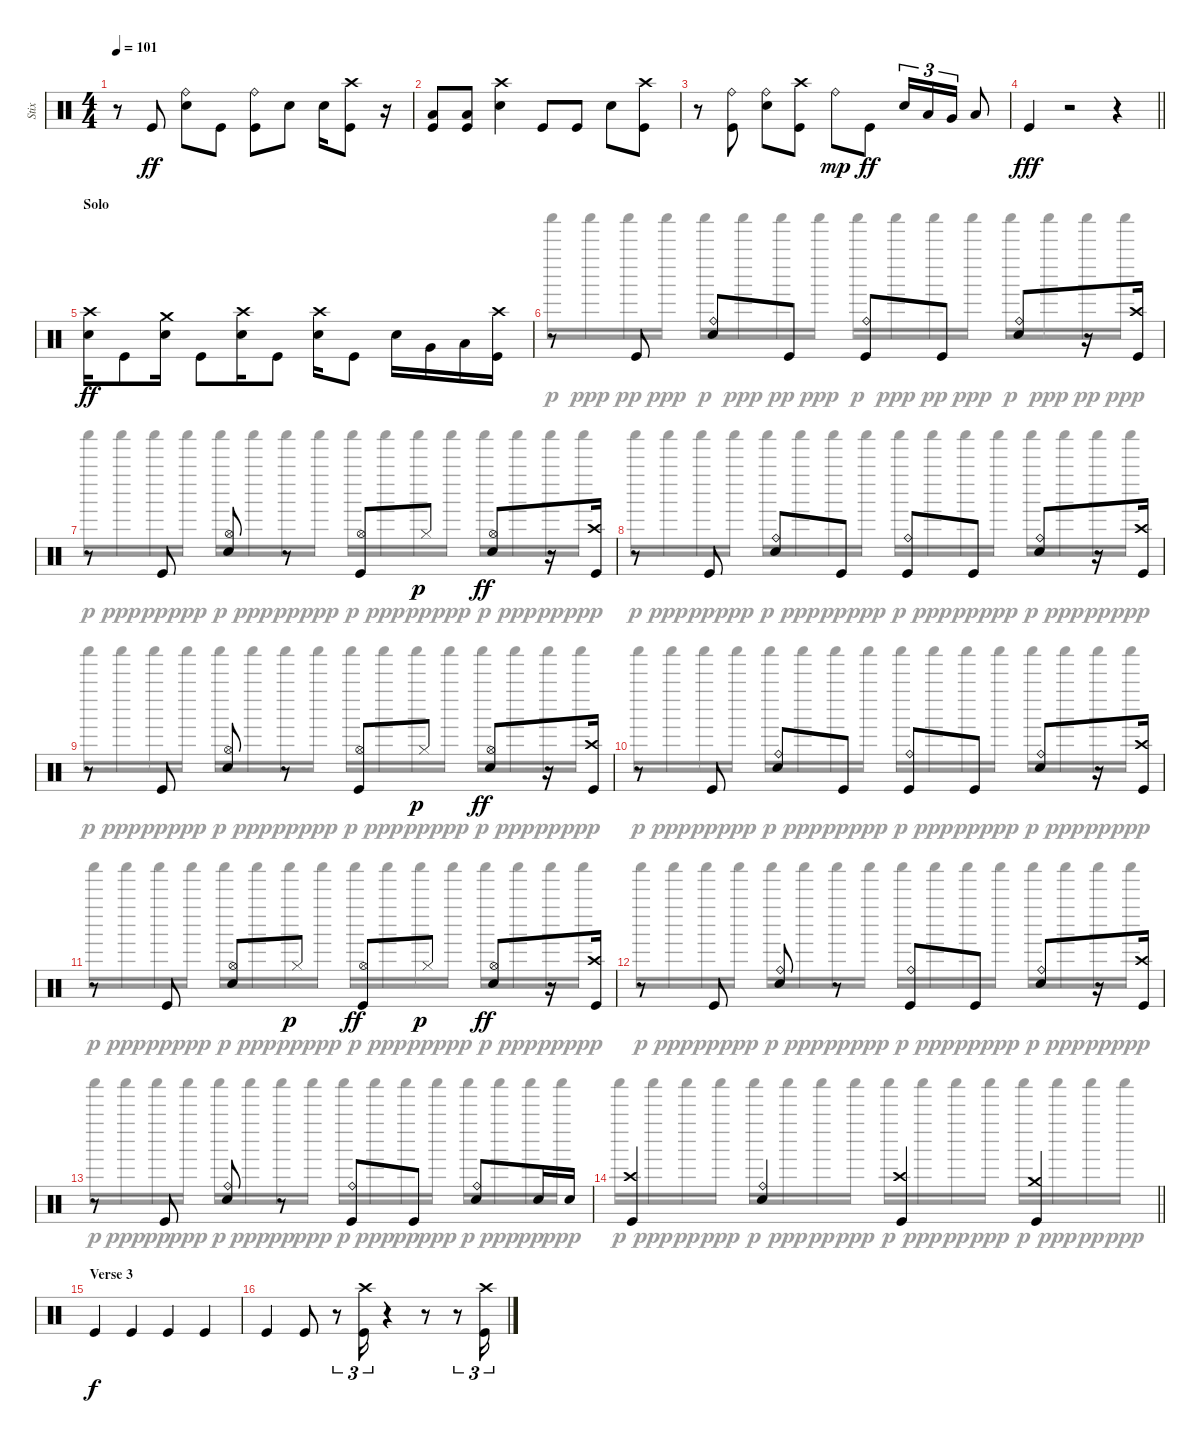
\track ("Stix" "Stix") {instrument percussion}
\staff {score}
\articulation defaults
\voice
\ts (4 4)
\tempo 101
\clef neutral
\ks c
r.8{dy ff} "Kick (hit)".8 ("Ride (bell)" "Electric Snare (hit)").8 "Kick (hit)".8 ("Ride (bell)" "Kick (hit)").8 "Electric Snare (hit)".8 "Electric Snare (hit)".16 ("Crash high (hit)" "Kick (hit)").8 r.16 |
("Low Floor Tom (hit)" "Kick (hit)").8 ("Low Floor Tom (hit)" "Kick (hit)").8 ("Crash high (hit)" "Electric Snare (hit)").4 "Kick (hit)".8 "Kick (hit)".8 "Electric Snare (hit)".8 ("Crash high (hit)" "Kick (hit)").8 |
r.8 ("Ride (bell)" "Kick (hit)").8 ("Ride (bell)" "Electric Snare (hit)").8 ("Crash high (hit)" "Kick (hit)").8 "Ride (bell)".8{dy mp} "Kick (hit)".8{dy ff} "Electric Snare (hit)".16{tu (3 2)} "Low Tom (hit)".16{tu (3 2)} "Very Low Tom (hit)".16{tu (3 2)} "Low Floor Tom (hit)".8 |
\barLineRight lightlight "Kick (hit)".4{dy fff}
r.2 r.4 |
\section ("" "Solo")
("Crash high (hit)" "Electric Snare (hit)").16{dy ff} "Kick (hit)".8 ("Crash medium (hit)" "Electric Snare (hit)").16 "Kick (hit)".8 ("Crash high (hit)" "Electric Snare (hit)").16 "Kick (hit)".8 ("Crash high (hit)" "Electric Snare (hit)").16 "Kick (hit)".8 "Electric Snare (hit)".16 "Very Low Tom (hit)".16 "Low Floor Tom (hit)".16 ("Crash high (hit)" "Kick (hit)").16 |
r.8 "Kick (hit)".8 ("Ride (bell)" "Electric Snare (hit)").8 "Kick (hit)".8 ("Ride (bell)" "Kick (hit)").8 "Kick (hit)".8 ("Ride (bell)" "Electric Snare (hit)").8 r.16 ("Crash high (hit)" "Kick (hit)").16 |
r.8 "Kick (hit)".8 ("Hi-Hat (open)" "Electric Snare (hit)").8 r.8 ("Hi-Hat (open)" "Kick (hit)").8 "Hi-Hat (closed)".8{dy p} ("Hi-Hat (open)" "Electric Snare (hit)").8{dy ff} r.16 ("Crash high (hit)" "Kick (hit)").16 |
r.8 "Kick (hit)".8 ("Ride (bell)" "Electric Snare (hit)").8 "Kick (hit)".8 ("Ride (bell)" "Kick (hit)").8 "Kick (hit)".8 ("Ride (bell)" "Electric Snare (hit)").8 r.16 ("Crash high (hit)" "Kick (hit)").16 |
r.8 "Kick (hit)".8 ("Hi-Hat (open)" "Electric Snare (hit)").8 r.8 ("Hi-Hat (open)" "Kick (hit)").8 "Hi-Hat (closed)".8{dy p} ("Hi-Hat (open)" "Electric Snare (hit)").8{dy ff} r.16 ("Crash high (hit)" "Kick (hit)").16 |
r.8 "Kick (hit)".8 ("Ride (bell)" "Electric Snare (hit)").8 "Kick (hit)".8 ("Ride (bell)" "Kick (hit)").8 "Kick (hit)".8 ("Ride (bell)" "Electric Snare (hit)").8 r.16 ("Crash high (hit)" "Kick (hit)").16 |
r.8 "Kick (hit)".8 ("Hi-Hat (open)" "Electric Snare (hit)").8 "Hi-Hat (closed)".8{dy p} ("Hi-Hat (open)" "Kick (hit)").8{dy ff} "Hi-Hat (closed)".8{dy p} ("Hi-Hat (open)" "Electric Snare (hit)").8{dy ff} r.16 ("Crash high (hit)" "Kick (hit)").16 |
r.8 "Kick (hit)".8 ("Ride (bell)" "Electric Snare (hit)").8 r.8 ("Ride (bell)" "Kick (hit)").8 "Kick (hit)".8 ("Ride (bell)" "Electric Snare (hit)").8 r.16 ("Crash high (hit)" "Kick (hit)").16 |
r.8 "Kick (hit)".8 ("Ride (bell)" "Electric Snare (hit)").8 r.8 ("Ride (bell)" "Kick (hit)").8 "Kick (hit)".8 ("Ride (bell)" "Electric Snare (hit)").8 "Electric Snare (hit)".16 "Electric Snare (hit)".16 |
\barLineRight lightlight
("Crash high (hit)" "Kick (hit)").4 ("Ride (bell)" "Electric Snare (hit)").4 ("Crash high (hit)" "Kick (hit)").4 ("Crash medium (hit)" "Kick (hit)").4 |
\section ("" "Verse 3")
"Kick (hit)".4{dy f} "Kick (hit)".4 "Kick (hit)".4 "Kick (hit)".4 |
"Kick (hit)".4 "Kick (hit)".8 r.8{tu (3 2)} ("Crash high (hit)" "Kick (hit)").16{tu (3 2)} r.4 r.8 r.8{tu (3 2)} ("Crash high (hit)" "Kick (hit)").16{tu (3 2)}
\voice
\clef neutral
\ottava regular
\simile none
\ks c
|
|
|
\barLineRight lightlight
|
|
"Shaker (hit)".16{dy p} "Shaker (hit)".16{dy ppp} "Shaker (hit)".16{dy pp} "Shaker (hit)".16{dy ppp} "Shaker (hit)".16{dy p} "Shaker (hit)".16{dy ppp} "Shaker (hit)".16{dy pp} "Shaker (hit)".16{dy ppp} "Shaker (hit)".16{dy p} "Shaker (hit)".16{dy ppp} "Shaker (hit)".16{dy pp} "Shaker (hit)".16{dy ppp} "Shaker (hit)".16{dy p} "Shaker (hit)".16{dy ppp} "Shaker (hit)".16{dy pp} "Shaker (hit)".16{dy ppp} |
"Shaker (hit)".16{dy p} "Shaker (hit)".16{dy ppp} "Shaker (hit)".16{dy pp} "Shaker (hit)".16{dy ppp} "Shaker (hit)".16{dy p} "Shaker (hit)".16{dy ppp} "Shaker (hit)".16{dy pp} "Shaker (hit)".16{dy ppp} "Shaker (hit)".16{dy p} "Shaker (hit)".16{dy ppp} "Shaker (hit)".16{dy pp} "Shaker (hit)".16{dy ppp} "Shaker (hit)".16{dy p} "Shaker (hit)".16{dy ppp} "Shaker (hit)".16{dy pp} "Shaker (hit)".16{dy ppp} |
"Shaker (hit)".16{dy p} "Shaker (hit)".16{dy ppp} "Shaker (hit)".16{dy pp} "Shaker (hit)".16{dy ppp} "Shaker (hit)".16{dy p} "Shaker (hit)".16{dy ppp} "Shaker (hit)".16{dy pp} "Shaker (hit)".16{dy ppp} "Shaker (hit)".16{dy p} "Shaker (hit)".16{dy ppp} "Shaker (hit)".16{dy pp} "Shaker (hit)".16{dy ppp} "Shaker (hit)".16{dy p} "Shaker (hit)".16{dy ppp} "Shaker (hit)".16{dy pp} "Shaker (hit)".16{dy ppp} |
"Shaker (hit)".16{dy p} "Shaker (hit)".16{dy ppp} "Shaker (hit)".16{dy pp} "Shaker (hit)".16{dy ppp} "Shaker (hit)".16{dy p} "Shaker (hit)".16{dy ppp} "Shaker (hit)".16{dy pp} "Shaker (hit)".16{dy ppp} "Shaker (hit)".16{dy p} "Shaker (hit)".16{dy ppp} "Shaker (hit)".16{dy pp} "Shaker (hit)".16{dy ppp} "Shaker (hit)".16{dy p} "Shaker (hit)".16{dy ppp} "Shaker (hit)".16{dy pp} "Shaker (hit)".16{dy ppp} |
"Shaker (hit)".16{dy p} "Shaker (hit)".16{dy ppp} "Shaker (hit)".16{dy pp} "Shaker (hit)".16{dy ppp} "Shaker (hit)".16{dy p} "Shaker (hit)".16{dy ppp} "Shaker (hit)".16{dy pp} "Shaker (hit)".16{dy ppp} "Shaker (hit)".16{dy p} "Shaker (hit)".16{dy ppp} "Shaker (hit)".16{dy pp} "Shaker (hit)".16{dy ppp} "Shaker (hit)".16{dy p} "Shaker (hit)".16{dy ppp} "Shaker (hit)".16{dy pp} "Shaker (hit)".16{dy ppp} |
"Shaker (hit)".16{dy p} "Shaker (hit)".16{dy ppp} "Shaker (hit)".16{dy pp} "Shaker (hit)".16{dy ppp} "Shaker (hit)".16{dy p} "Shaker (hit)".16{dy ppp} "Shaker (hit)".16{dy pp} "Shaker (hit)".16{dy ppp} "Shaker (hit)".16{dy p} "Shaker (hit)".16{dy ppp} "Shaker (hit)".16{dy pp} "Shaker (hit)".16{dy ppp} "Shaker (hit)".16{dy p} "Shaker (hit)".16{dy ppp} "Shaker (hit)".16{dy pp} "Shaker (hit)".16{dy ppp} |
"Shaker (hit)".16{dy p} "Shaker (hit)".16{dy ppp} "Shaker (hit)".16{dy pp} "Shaker (hit)".16{dy ppp} "Shaker (hit)".16{dy p} "Shaker (hit)".16{dy ppp} "Shaker (hit)".16{dy pp} "Shaker (hit)".16{dy ppp} "Shaker (hit)".16{dy p} "Shaker (hit)".16{dy ppp} "Shaker (hit)".16{dy pp} "Shaker (hit)".16{dy ppp} "Shaker (hit)".16{dy p} "Shaker (hit)".16{dy ppp} "Shaker (hit)".16{dy pp} "Shaker (hit)".16{dy ppp} |
"Shaker (hit)".16{dy p} "Shaker (hit)".16{dy ppp} "Shaker (hit)".16{dy pp} "Shaker (hit)".16{dy ppp} "Shaker (hit)".16{dy p} "Shaker (hit)".16{dy ppp} "Shaker (hit)".16{dy pp} "Shaker (hit)".16{dy ppp} "Shaker (hit)".16{dy p} "Shaker (hit)".16{dy ppp} "Shaker (hit)".16{dy pp} "Shaker (hit)".16{dy ppp} "Shaker (hit)".16{dy p} "Shaker (hit)".16{dy ppp} "Shaker (hit)".16{dy pp} "Shaker (hit)".16{dy ppp} |
\barLineRight lightlight "Shaker (hit)".16{dy p} "Shaker (hit)".16{dy ppp} "Shaker (hit)".16{dy pp} "Shaker (hit)".16{dy ppp} "Shaker (hit)".16{dy p} "Shaker (hit)".16{dy ppp} "Shaker (hit)".16{dy pp} "Shaker (hit)".16{dy ppp} "Shaker (hit)".16{dy p} "Shaker (hit)".16{dy ppp} "Shaker (hit)".16{dy pp} "Shaker (hit)".16{dy ppp} "Shaker (hit)".16{dy p} "Shaker (hit)".16{dy ppp} "Shaker (hit)".16{dy pp} "Shaker (hit)".16{dy ppp}
|
|
